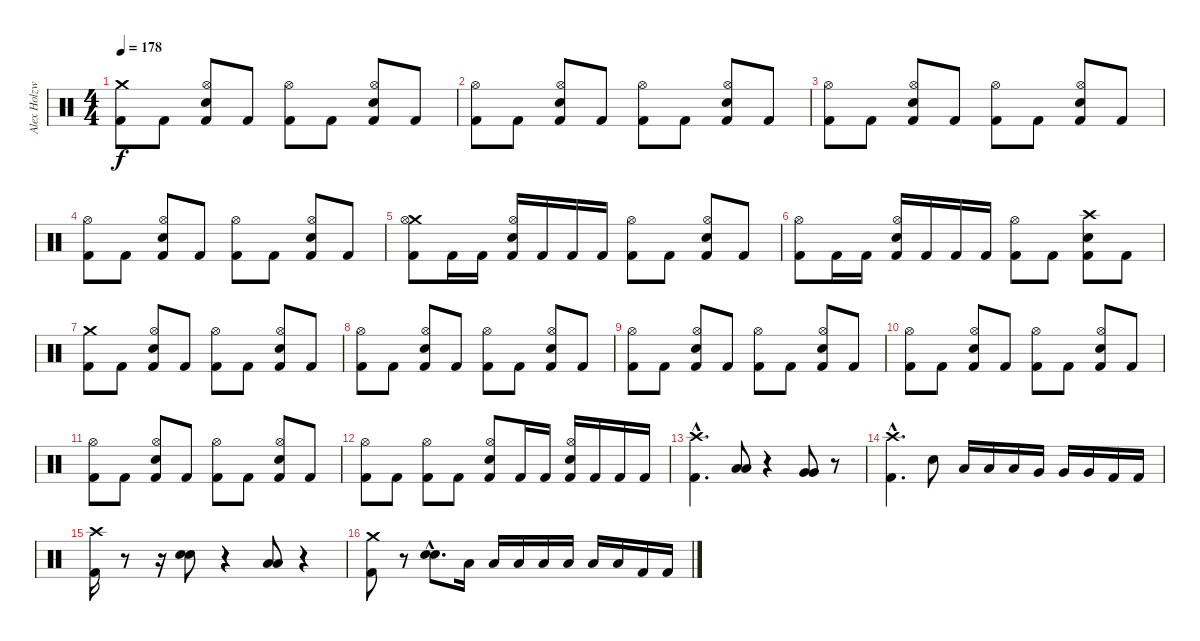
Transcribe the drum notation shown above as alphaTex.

\track ("Alex Holzwarth" "Alex Holzw") {instrument percussion}
\staff {score}
\articulation defaults
\ts (4 4)
\tempo 178
\clef neutral
\ks c
("Crash medium (hit)" "Kick (hit) 2").8{dy f} "Kick (hit) 2".8 ("Hi-Hat (open)" "Snare (hit) 2" "Kick (hit) 2").8 "Kick (hit) 2".8 ("Hi-Hat (open)" "Kick (hit) 2").8 "Kick (hit) 2".8 ("Hi-Hat (open)" "Snare (hit) 2" "Kick (hit) 2").8 "Kick (hit) 2".8 |
("Hi-Hat (open)" "Kick (hit) 2").8 "Kick (hit) 2".8 ("Hi-Hat (open)" "Snare (hit) 2" "Kick (hit) 2").8 "Kick (hit) 2".8 ("Hi-Hat (open)" "Kick (hit) 2").8 "Kick (hit) 2".8 ("Hi-Hat (open)" "Snare (hit) 2" "Kick (hit) 2").8 "Kick (hit) 2".8 |
("Hi-Hat (open)" "Kick (hit) 2").8 "Kick (hit) 2".8 ("Hi-Hat (open)" "Snare (hit) 2" "Kick (hit) 2").8 "Kick (hit) 2".8 ("Hi-Hat (open)" "Kick (hit) 2").8 "Kick (hit) 2".8 ("Hi-Hat (open)" "Snare (hit) 2" "Kick (hit) 2").8 "Kick (hit) 2".8 |
("Hi-Hat (open)" "Kick (hit) 2").8 "Kick (hit) 2".8 ("Hi-Hat (open)" "Snare (hit) 2" "Kick (hit) 2").8 "Kick (hit) 2".8 ("Hi-Hat (open)" "Kick (hit) 2").8 "Kick (hit) 2".8 ("Hi-Hat (open)" "Snare (hit) 2" "Kick (hit) 2").8 "Kick (hit) 2".8 |
("Crash medium (hit)" "Hi-Hat (open)" "Kick (hit) 2").8 "Kick (hit) 2".16 "Kick (hit) 2".16 ("Hi-Hat (open)" "Snare (hit) 2" "Kick (hit) 2").16 "Kick (hit) 2".16 "Kick (hit) 2".16 "Kick (hit) 2".16 ("Hi-Hat (open)" "Kick (hit) 2").8 "Kick (hit) 2".8 ("Hi-Hat (open)" "Snare (hit) 2" "Kick (hit) 2").8 "Kick (hit) 2".8 |
("Hi-Hat (open)" "Kick (hit) 2").8 "Kick (hit) 2".16 "Kick (hit) 2".16 ("Hi-Hat (open)" "Snare (hit) 2" "Kick (hit) 2").16 "Kick (hit) 2".16 "Kick (hit) 2".16 "Kick (hit) 2".16 ("Hi-Hat (open)" "Kick (hit) 2").8 "Kick (hit) 2".8 ("Crash high (hit)" "Snare (hit) 2" "Kick (hit) 2").8 "Kick (hit) 2".8 |
("Crash medium (hit)" "Kick (hit) 2").8 "Kick (hit) 2".8 ("Hi-Hat (open)" "Snare (hit) 2" "Kick (hit) 2").8 "Kick (hit) 2".8 ("Hi-Hat (open)" "Kick (hit) 2").8 "Kick (hit) 2".8 ("Hi-Hat (open)" "Snare (hit) 2" "Kick (hit) 2").8 "Kick (hit) 2".8 |
("Hi-Hat (open)" "Kick (hit) 2").8 "Kick (hit) 2".8 ("Hi-Hat (open)" "Snare (hit) 2" "Kick (hit) 2").8 "Kick (hit) 2".8 ("Hi-Hat (open)" "Kick (hit) 2").8 "Kick (hit) 2".8 ("Hi-Hat (open)" "Snare (hit) 2" "Kick (hit) 2").8 "Kick (hit) 2".8 |
("Hi-Hat (open)" "Kick (hit) 2").8 "Kick (hit) 2".8 ("Hi-Hat (open)" "Snare (hit) 2" "Kick (hit) 2").8 "Kick (hit) 2".8 ("Hi-Hat (open)" "Kick (hit) 2").8 "Kick (hit) 2".8 ("Hi-Hat (open)" "Snare (hit) 2" "Kick (hit) 2").8 "Kick (hit) 2".8 |
("Hi-Hat (open)" "Kick (hit) 2").8 "Kick (hit) 2".8 ("Hi-Hat (open)" "Snare (hit) 2" "Kick (hit) 2").8 "Kick (hit) 2".8 ("Hi-Hat (open)" "Kick (hit) 2").8 "Kick (hit) 2".8 ("Hi-Hat (open)" "Snare (hit) 2" "Kick (hit) 2").8 "Kick (hit) 2".8 |
("Hi-Hat (open)" "Kick (hit) 2").8 "Kick (hit) 2".8 ("Hi-Hat (open)" "Snare (hit) 2" "Kick (hit) 2").8 "Kick (hit) 2".8 ("Hi-Hat (open)" "Kick (hit) 2").8 "Kick (hit) 2".8 ("Hi-Hat (open)" "Snare (hit) 2" "Kick (hit) 2").8 "Kick (hit) 2".8 |
("Hi-Hat (open)" "Kick (hit) 2").8 "Kick (hit) 2".8 ("Hi-Hat (open)" "Kick (hit) 2").8 "Kick (hit) 2".8 ("Hi-Hat (open)" "Snare (hit) 2" "Kick (hit) 2").8 "Kick (hit) 2".16 "Kick (hit) 2".16 ("Hi-Hat (open)" "Snare (hit) 2" "Kick (hit) 2").16 "Kick (hit) 2".16 "Kick (hit) 2".16 "Kick (hit) 2".16 |
("Crash high (hit)"{hac} "Kick (hit) 2"{hac}).4{d} ("Low Tom (hit)" "Low Tom (hit)").8 r.4 ("Very Low Tom (hit)" "Very Low Tom (hit)").8 r.8 |
("Crash high (hit)"{hac} "Kick (hit) 2"{hac}).4{d} "Snare (hit) 2".8 "Low Tom (hit)".16 "Low Tom (hit)".16 "Low Tom (hit)".16 "Very Low Tom (hit)".16 "Very Low Tom (hit)".16 "Very Low Tom (hit)".16 "Kick (hit) 2".16 "Kick (hit) 2".16 |
("Crash high (hit)" "Kick (hit) 2").16 r.8 r.16 ("Snare (hit) 2" "Snare (hit) 2").8 r.4 ("Low Tom (hit)" "Low Tom (hit)").8 r.4 |
("Crash medium (hit)" "Kick (hit) 2").8 r.8 ("Snare (hit) 2"{hac} "Snare (hit) 2"{hac}).8{d} "Low Tom (hit)".16 "Low Tom (hit)".16 "Low Tom (hit)".16 "Low Tom (hit)".16 "Low Floor Tom (hit)".16 "Low Floor Tom (hit)".16 "Low Floor Tom (hit)".16 "Kick (hit) 2".16 "Kick (hit) 2".16
